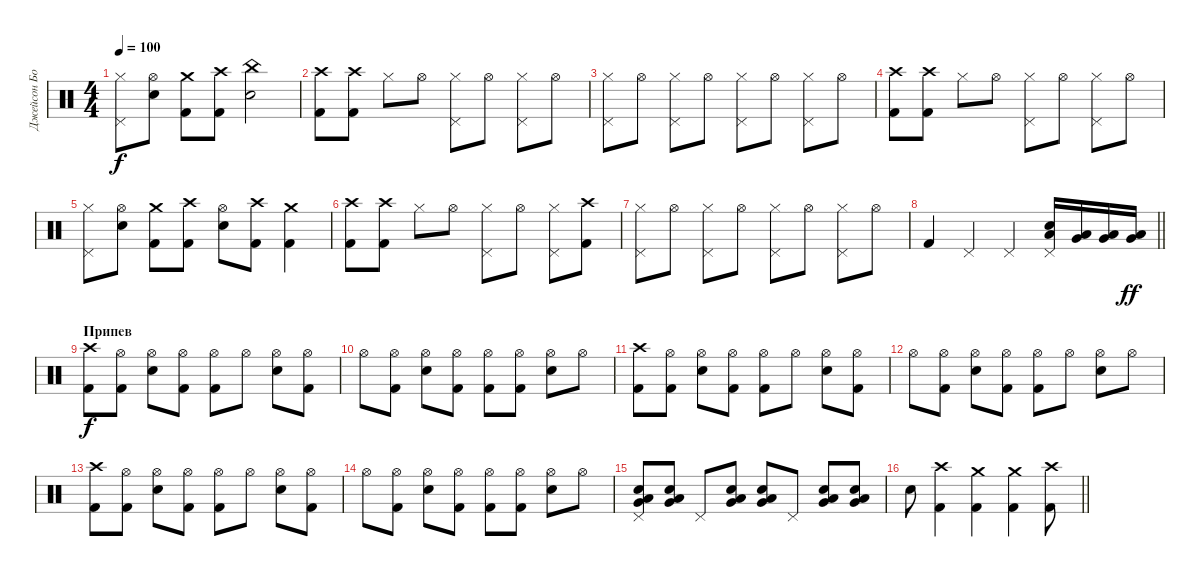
\track ("Джейсон Бонэм" "Джейсон Бо") {instrument percussion}
\staff {score}
\articulation defaults
\ts (4 4)
\tempo 100
\clef neutral
\ks c
("Hi-Hat (closed)" "Pedal Hi-Hat (hit)").8{dy f} ("Hi-Hat (open)" "Snare (hit) 2").8 ("Crash medium (hit)" "Kick (hit) 2").8 ("Crash high (hit)" "Kick (hit) 2").8 ("China (hit)" "Snare (hit) 2").2 |
("Crash high (hit)" "Kick (hit) 2").8 ("Crash high (hit)" "Kick (hit) 2").8 "Hi-Hat (closed)".8 "Hi-Hat (open)".8 ("Hi-Hat (closed)" "Pedal Hi-Hat (hit)").8 "Hi-Hat (open)".8 ("Hi-Hat (closed)" "Pedal Hi-Hat (hit)").8 "Hi-Hat (open)".8 |
("Hi-Hat (closed)" "Pedal Hi-Hat (hit)").8 "Hi-Hat (open)".8 ("Hi-Hat (closed)" "Pedal Hi-Hat (hit)").8 "Hi-Hat (open)".8 ("Hi-Hat (closed)" "Pedal Hi-Hat (hit)").8 "Hi-Hat (open)".8 ("Hi-Hat (closed)" "Pedal Hi-Hat (hit)").8 "Hi-Hat (open)".8 |
("Crash high (hit)" "Kick (hit) 2").8 ("Crash high (hit)" "Kick (hit) 2").8 "Hi-Hat (closed)".8 "Hi-Hat (open)".8 ("Hi-Hat (closed)" "Pedal Hi-Hat (hit)").8 "Hi-Hat (open)".8 ("Hi-Hat (closed)" "Pedal Hi-Hat (hit)").8 "Hi-Hat (open)".8 |
("Hi-Hat (closed)" "Pedal Hi-Hat (hit)").8 ("Hi-Hat (open)" "Snare (hit) 2").8 ("Crash medium (hit)" "Kick (hit) 2").8 ("Crash high (hit)" "Kick (hit) 2").8 ("Hi-Hat (open)" "Snare (hit) 2").8 ("Crash high (hit)" "Kick (hit) 2").8 ("Crash medium (hit)" "Kick (hit) 2").4 |
("Crash high (hit)" "Kick (hit) 2").8 ("Crash high (hit)" "Kick (hit) 2").8 "Hi-Hat (closed)".8 "Hi-Hat (open)".8 ("Hi-Hat (closed)" "Pedal Hi-Hat (hit)").8 "Hi-Hat (open)".8 ("Hi-Hat (closed)" "Pedal Hi-Hat (hit)").8 ("Crash high (hit)" "Kick (hit) 2").8 |
("Hi-Hat (closed)" "Pedal Hi-Hat (hit)").8 "Hi-Hat (open)".8 ("Hi-Hat (closed)" "Pedal Hi-Hat (hit)").8 "Hi-Hat (open)".8 ("Hi-Hat (closed)" "Pedal Hi-Hat (hit)").8 "Hi-Hat (open)".8 ("Hi-Hat (closed)" "Pedal Hi-Hat (hit)").8 "Hi-Hat (open)".8 |
\barLineRight lightlight "Kick (hit) 2".4 "Pedal Hi-Hat (hit)".4 "Pedal Hi-Hat (hit)".4
("Low Floor Tom (hit)" "Snare (hit) 2" "Pedal Hi-Hat (hit)").16 ("Very Low Tom (hit)" "Low Tom (hit)").16 ("Very Low Tom (hit)" "Low Tom (hit)").16 ("Very Low Tom (hit)" "Low Floor Tom (hit)").16{dy ff} |
\section ("" "Припев")
("Crash high (hit)" "Kick (hit) 2").8{dy f} ("Hi-Hat (open)" "Kick (hit) 2").8 ("Hi-Hat (open)" "Snare (hit) 2").8 ("Hi-Hat (open)" "Kick (hit) 2").8 ("Hi-Hat (open)" "Kick (hit) 2").8 "Hi-Hat (open)".8 ("Hi-Hat (open)" "Snare (hit) 2").8 ("Hi-Hat (open)" "Kick (hit) 2").8 |
"Hi-Hat (open)".8 ("Hi-Hat (open)" "Kick (hit) 2").8 ("Hi-Hat (open)" "Snare (hit) 2").8 ("Hi-Hat (open)" "Kick (hit) 2").8 ("Hi-Hat (open)" "Kick (hit) 2").8 ("Hi-Hat (open)" "Kick (hit) 2").8 ("Hi-Hat (open)" "Snare (hit) 2").8 "Hi-Hat (open)".8 |
("Crash high (hit)" "Kick (hit) 2").8 ("Hi-Hat (open)" "Kick (hit) 2").8 ("Hi-Hat (open)" "Snare (hit) 2").8 ("Hi-Hat (open)" "Kick (hit) 2").8 ("Hi-Hat (open)" "Kick (hit) 2").8 "Hi-Hat (open)".8 ("Hi-Hat (open)" "Snare (hit) 2").8 ("Hi-Hat (open)" "Kick (hit) 2").8 |
"Hi-Hat (open)".8 ("Hi-Hat (open)" "Kick (hit) 2").8 ("Hi-Hat (open)" "Snare (hit) 2").8 ("Hi-Hat (open)" "Kick (hit) 2").8 ("Hi-Hat (open)" "Kick (hit) 2").8 "Hi-Hat (open)".8 ("Hi-Hat (open)" "Snare (hit) 2").8 "Hi-Hat (open)".8 |
("Crash high (hit)" "Kick (hit) 2").8 ("Hi-Hat (open)" "Kick (hit) 2").8 ("Hi-Hat (open)" "Snare (hit) 2").8 ("Hi-Hat (open)" "Kick (hit) 2").8 ("Hi-Hat (open)" "Kick (hit) 2").8 "Hi-Hat (open)".8 ("Hi-Hat (open)" "Snare (hit) 2").8 ("Hi-Hat (open)" "Kick (hit) 2").8 |
"Hi-Hat (open)".8 ("Hi-Hat (open)" "Kick (hit) 2").8 ("Hi-Hat (open)" "Snare (hit) 2").8 ("Hi-Hat (open)" "Kick (hit) 2").8 ("Hi-Hat (open)" "Kick (hit) 2").8 ("Hi-Hat (open)" "Kick (hit) 2").8 ("Hi-Hat (open)" "Snare (hit) 2").8 "Hi-Hat (open)".8 |
("Very Low Tom (hit)" "Low Floor Tom (hit)" "Snare (hit) 2" "Pedal Hi-Hat (hit)").8 ("Very Low Tom (hit)" "Low Floor Tom (hit)" "Snare (hit) 2").8 "Pedal Hi-Hat (hit)".8 ("Very Low Tom (hit)" "Low Floor Tom (hit)" "Snare (hit) 2").8 ("Very Low Tom (hit)" "Low Floor Tom (hit)" "Snare (hit) 2").8 "Pedal Hi-Hat (hit)".8 ("Very Low Tom (hit)" "Low Floor Tom (hit)" "Snare (hit) 2").8 ("Very Low Tom (hit)" "Low Floor Tom (hit)" "Snare (hit) 2").8 |
\barLineRight lightlight "Snare (hit) 2".8
("Crash high (hit)" "Kick (hit) 2").4 ("Crash medium (hit)" "Kick (hit) 2").4 ("Crash medium (hit)" "Kick (hit) 2").4 ("Crash high (hit)" "Kick (hit) 2").8
